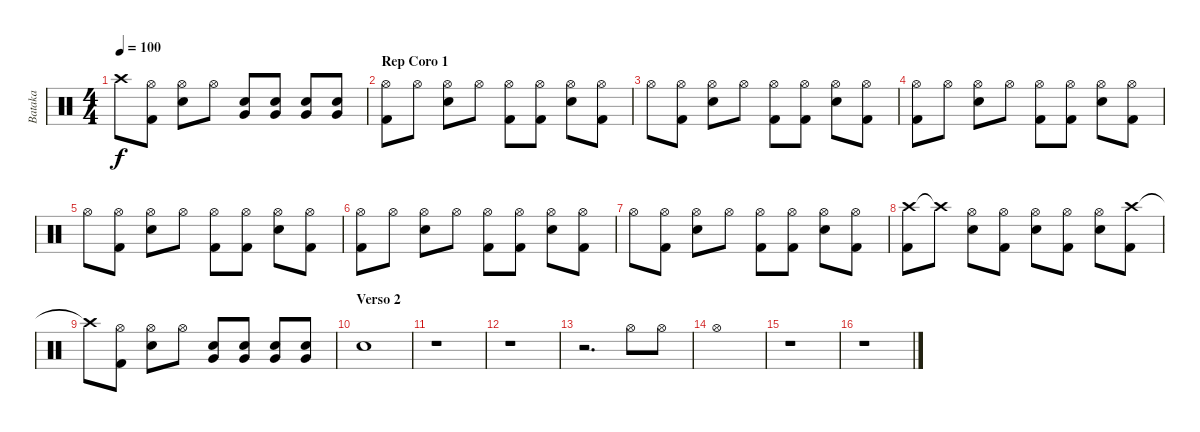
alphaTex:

\track ("Bataka" "Bataka") {instrument percussion}
\staff {score}
\articulation defaults
\ts (4 4)
\tempo 100
\clef neutral
\ks c "Crash high (hit)"{t}.8{dy f}
("Hi-Hat (open)" "Kick (hit) 2").8 ("Hi-Hat (open)" "Snare (hit) 2").8 "Hi-Hat (open)".8 ("Very Low Tom (hit)" "Snare (hit) 2").8 ("Very Low Tom (hit)" "Snare (hit) 2").8 ("Very Low Tom (hit)" "Snare (hit) 2").8 ("Very Low Tom (hit)" "Snare (hit) 2").8 |
\section ("" "Rep Coro 1")
("Hi-Hat (open)" "Kick (hit) 2").8 "Hi-Hat (open)".8 ("Hi-Hat (open)" "Snare (hit) 2").8 "Hi-Hat (open)".8 ("Hi-Hat (open)" "Kick (hit) 2").8 ("Hi-Hat (open)" "Kick (hit) 2").8 ("Hi-Hat (open)" "Snare (hit) 2").8 ("Hi-Hat (open)" "Kick (hit) 2").8 |
"Hi-Hat (open)".8 ("Hi-Hat (open)" "Kick (hit) 2").8 ("Hi-Hat (open)" "Snare (hit) 2").8 "Hi-Hat (open)".8 ("Hi-Hat (open)" "Kick (hit) 2").8 ("Hi-Hat (open)" "Kick (hit) 2").8 ("Hi-Hat (open)" "Snare (hit) 2").8 ("Hi-Hat (open)" "Kick (hit) 2").8 |
("Hi-Hat (open)" "Kick (hit) 2").8 "Hi-Hat (open)".8 ("Hi-Hat (open)" "Snare (hit) 2").8 "Hi-Hat (open)".8 ("Hi-Hat (open)" "Kick (hit) 2").8 ("Hi-Hat (open)" "Kick (hit) 2").8 ("Hi-Hat (open)" "Snare (hit) 2").8 ("Hi-Hat (open)" "Kick (hit) 2").8 |
"Hi-Hat (open)".8 ("Hi-Hat (open)" "Kick (hit) 2").8 ("Hi-Hat (open)" "Snare (hit) 2").8 "Hi-Hat (open)".8 ("Hi-Hat (open)" "Kick (hit) 2").8 ("Hi-Hat (open)" "Kick (hit) 2").8 ("Hi-Hat (open)" "Snare (hit) 2").8 ("Hi-Hat (open)" "Kick (hit) 2").8 |
("Hi-Hat (open)" "Kick (hit) 2").8 "Hi-Hat (open)".8 ("Hi-Hat (open)" "Snare (hit) 2").8 "Hi-Hat (open)".8 ("Hi-Hat (open)" "Kick (hit) 2").8 ("Hi-Hat (open)" "Kick (hit) 2").8 ("Hi-Hat (open)" "Snare (hit) 2").8 ("Hi-Hat (open)" "Kick (hit) 2").8 |
"Hi-Hat (open)".8 ("Hi-Hat (open)" "Kick (hit) 2").8 ("Hi-Hat (open)" "Snare (hit) 2").8 "Hi-Hat (open)".8 ("Hi-Hat (open)" "Kick (hit) 2").8 ("Hi-Hat (open)" "Kick (hit) 2").8 ("Hi-Hat (open)" "Snare (hit) 2").8 ("Hi-Hat (open)" "Kick (hit) 2").8 |
("Crash high (hit)" "Kick (hit) 2").8 "Crash high (hit)"{t}.8 ("Hi-Hat (open)" "Snare (hit) 2").8 ("Hi-Hat (open)" "Kick (hit) 2").8 ("Hi-Hat (open)" "Snare (hit) 2").8 ("Hi-Hat (open)" "Kick (hit) 2").8 ("Hi-Hat (open)" "Snare (hit) 2").8 ("Crash high (hit)" "Kick (hit) 2").8 |
"Crash high (hit)"{t}.8 ("Hi-Hat (open)" "Kick (hit) 2").8 ("Hi-Hat (open)" "Snare (hit) 2").8 "Hi-Hat (open)".8 ("Very Low Tom (hit)" "Snare (hit) 2").8 ("Very Low Tom (hit)" "Snare (hit) 2").8 ("Very Low Tom (hit)" "Snare (hit) 2").8 ("Very Low Tom (hit)" "Snare (hit) 2").8 |
\section ("" "Verso 2")
"Snare (hit) 2".1 |
r.1 |
r.1 |
r.2{d} "Hi-Hat (open)".8 "Hi-Hat (open)".8 |
"Hi-Hat (open)".1 |
r.1 |
r.1
